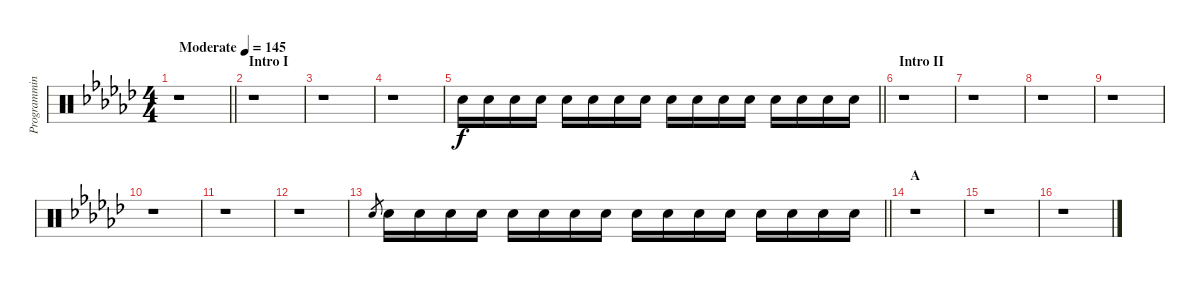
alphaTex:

\track ("Programming Drums II" "Programmin") {instrument percussion}
\staff {score}
\articulation defaults
\ts (4 4)
\tempo (145 "Moderate")
\clef neutral
\barLineRight lightlight
\ks gb
r.1{dy f} |
\section ("" "Intro I")
r.1 |
r.1 |
r.1 |
\barLineRight lightlight "Electric Snare (hit)".16 "Electric Snare (hit)".16 "Electric Snare (hit)".16 "Electric Snare (hit)".16 "Electric Snare (hit)".16 "Electric Snare (hit)".16 "Electric Snare (hit)".16 "Electric Snare (hit)".16 "Electric Snare (hit)".16 "Electric Snare (hit)".16 "Electric Snare (hit)".16 "Electric Snare (hit)".16 "Electric Snare (hit)".16 "Electric Snare (hit)".16 "Electric Snare (hit)".16 "Electric Snare (hit)".16
|
\section ("" "Intro II")
r.1 |
r.1 |
r.1 |
r.1 |
r.1 |
r.1 |
r.1 |
\barLineRight lightlight "Electric Snare (hit)".8{gr} "Electric Snare (hit)".16 "Electric Snare (hit)".16 "Electric Snare (hit)".16 "Electric Snare (hit)".16 "Electric Snare (hit)".16 "Electric Snare (hit)".16 "Electric Snare (hit)".16 "Electric Snare (hit)".16 "Electric Snare (hit)".16 "Electric Snare (hit)".16 "Electric Snare (hit)".16 "Electric Snare (hit)".16 "Electric Snare (hit)".16 "Electric Snare (hit)".16 "Electric Snare (hit)".16 "Electric Snare (hit)".16
|
\section ("" "A")
r.1 |
r.1 |
r.1
